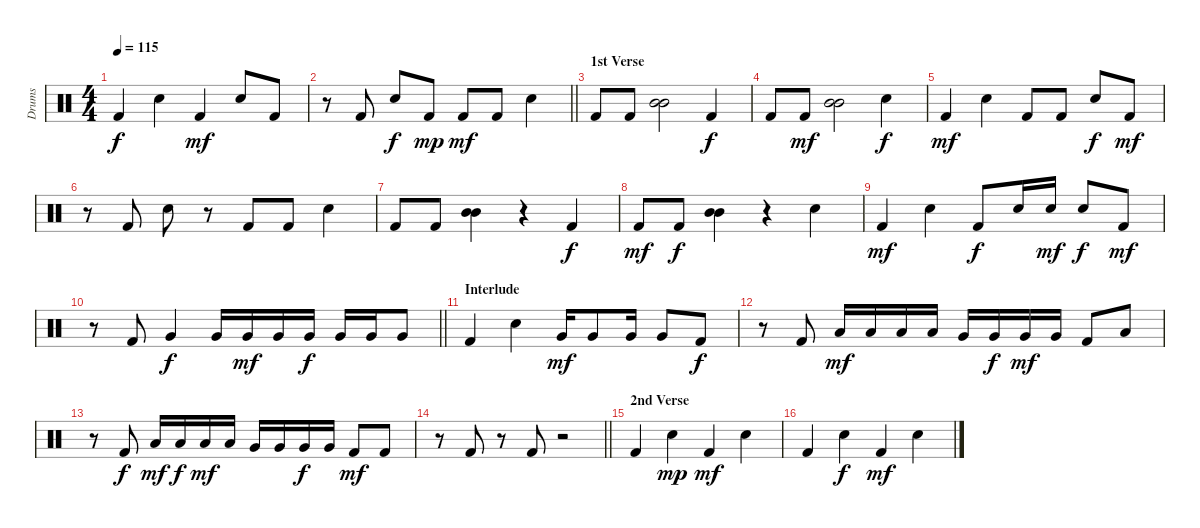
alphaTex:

\track ("Drums" "Drums") {instrument percussion}
\staff {score}
\articulation defaults
\ts (4 4)
\tempo 115
\clef neutral
\ks c "Kick (hit) 2".4{dy f} "Electric Snare (hit)".4 "Kick (hit) 2".4{dy mf} "Electric Snare (hit)".8 "Kick (hit) 2".8
|
\barLineRight lightlight
r.8 "Kick (hit) 2".8 "Electric Snare (hit)".8{dy f} "Kick (hit) 2".8{dy mp} "Kick (hit) 2".8{dy mf} "Kick (hit) 2".8 "Electric Snare (hit)".4 |
\section ("" "1st Verse")
"Kick (hit) 2".8 "Kick (hit) 2".8 ("Mid Tom (hit)" "Mid Tom (hit)").2 "Kick (hit) 2".4{dy f} |
"Kick (hit) 2".8 "Kick (hit) 2".8{dy mf} ("Mid Tom (hit)" "Mid Tom (hit)").2 "Electric Snare (hit)".4{dy f} |
"Kick (hit) 2".4{dy mf} "Electric Snare (hit)".4 "Kick (hit) 2".8 "Kick (hit) 2".8 "Electric Snare (hit)".8{dy f} "Kick (hit) 2".8{dy mf} |
r.8 "Kick (hit) 2".8 "Electric Snare (hit)".8 r.8 "Kick (hit) 2".8 "Kick (hit) 2".8 "Electric Snare (hit)".4 |
"Kick (hit) 2".8 "Kick (hit) 2".8 ("Mid Tom (hit)" "Mid Tom (hit)").4 r.4 "Kick (hit) 2".4{dy f} |
"Kick (hit) 2".8{dy mf} "Kick (hit) 2".8{dy f} ("Mid Tom (hit)" "Mid Tom (hit)").4 r.4 "Electric Snare (hit)".4 |
"Kick (hit) 2".4{dy mf} "Electric Snare (hit)".4 "Kick (hit) 2".8{dy f} "Electric Snare (hit)".16 "Electric Snare (hit)".16{dy mf} "Electric Snare (hit)".8{dy f} "Kick (hit) 2".8{dy mf} |
\barLineRight lightlight
r.8 "Kick (hit) 2".8 "Very Low Tom (hit)".4{dy f} "Very Low Tom (hit)".16 "Very Low Tom (hit)".16{dy mf} "Very Low Tom (hit)".16 "Very Low Tom (hit)".16{dy f} "Very Low Tom (hit)".16 "Very Low Tom (hit)".16 "Very Low Tom (hit)".8 |
\section ("" "Interlude")
"Kick (hit) 2".4 "Electric Snare (hit)".4 "Very Low Tom (hit)".16{dy mf} "Very Low Tom (hit)".8 "Very Low Tom (hit)".16 "Very Low Tom (hit)".8 "Kick (hit) 2".8{dy f} |
r.8 "Kick (hit) 2".8 "Low Tom (hit)".16{dy mf} "Low Tom (hit)".16 "Low Tom (hit)".16 "Low Tom (hit)".16 "Very Low Tom (hit)".16 "Very Low Tom (hit)".16{dy f} "Very Low Tom (hit)".16{dy mf} "Very Low Tom (hit)".16 "Kick (hit) 2".8 "Low Tom (hit)".8 |
r.8 "Kick (hit) 2".8{dy f} "Low Tom (hit)".16{dy mf} "Low Tom (hit)".16{dy f} "Low Tom (hit)".16{dy mf} "Low Tom (hit)".16 "Very Low Tom (hit)".16 "Very Low Tom (hit)".16 "Very Low Tom (hit)".16{dy f} "Very Low Tom (hit)".16 "Kick (hit) 2".8{dy mf} "Kick (hit) 2".8 |
\barLineRight lightlight
r.8 "Kick (hit) 2".8 r.8 "Kick (hit) 2".8 r.2 |
\section ("" "2nd Verse")
"Kick (hit) 2".4 "Electric Snare (hit)".4{dy mp} "Kick (hit) 2".4{dy mf} "Electric Snare (hit)".4 |
"Kick (hit) 2".4 "Electric Snare (hit)".4{dy f} "Kick (hit) 2".4{dy mf} "Electric Snare (hit)".4
